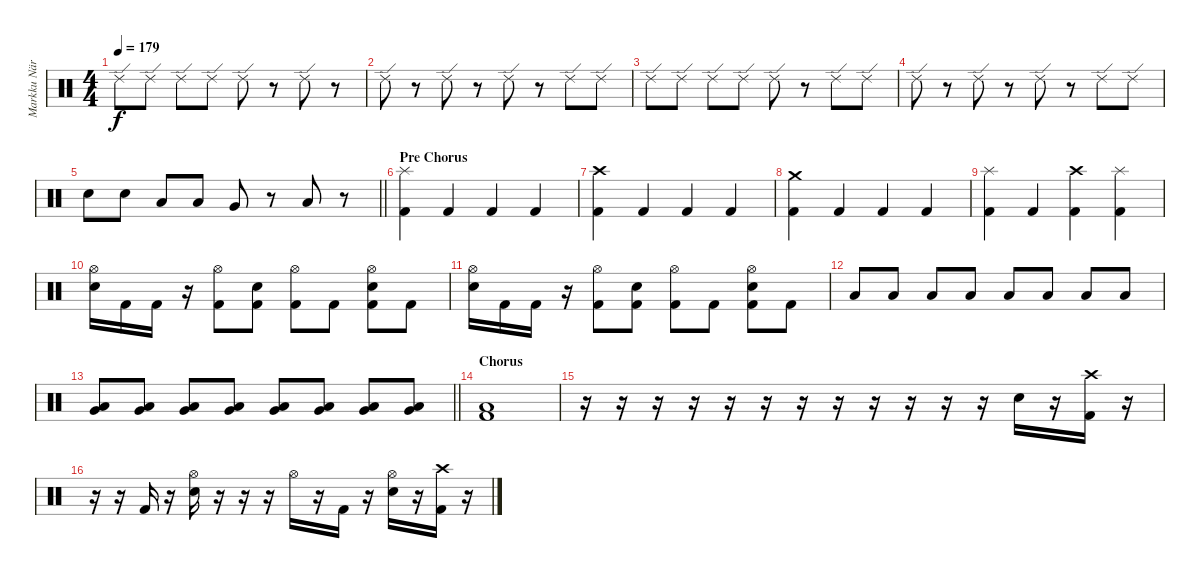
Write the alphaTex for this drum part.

\track ("Markku Näreneva (Drums)" "Markku När") {instrument percussion}
\staff {score}
\articulation defaults
\ts (4 4)
\tempo 179
\clef neutral
\ks c "Ride (edge) 2".8{dy f} "Ride (edge) 2".8 "Ride (edge) 2".8 "Ride (edge) 2".8 "Ride (edge) 2".8
r.8 "Ride (edge) 2".8 r.8 |
"Ride (edge) 2".8 r.8 "Ride (edge) 2".8 r.8 "Ride (edge) 2".8 r.8 "Ride (edge) 2".8 "Ride (edge) 2".8 |
"Ride (edge) 2".8 "Ride (edge) 2".8 "Ride (edge) 2".8 "Ride (edge) 2".8 "Ride (edge) 2".8 r.8 "Ride (edge) 2".8 "Ride (edge) 2".8 |
"Ride (edge) 2".8 r.8 "Ride (edge) 2".8 r.8 "Ride (edge) 2".8 r.8 "Ride (edge) 2".8 "Ride (edge) 2".8 |
\barLineRight lightlight "Snare (hit) 2".8 "Snare (hit) 2".8 "Low Tom (hit)".8 "Low Tom (hit)".8 "Very Low Tom (hit)".8
r.8 "Low Floor Tom (hit)".8 r.8 |
\section ("" "Pre Chorus")
("Kick (hit) 2" "Splash (hit)").4 "Kick (hit) 2".4 "Kick (hit) 2".4 "Kick (hit) 2".4 |
("Kick (hit) 2" "Crash high (hit)").4 "Kick (hit) 2".4 "Kick (hit) 2".4 "Kick (hit) 2".4 |
("Kick (hit) 2" "Crash medium (hit)").4 "Kick (hit) 2".4 "Kick (hit) 2".4 "Kick (hit) 2".4 |
("Kick (hit) 2" "Splash (hit)").4 "Kick (hit) 2".4 ("Kick (hit) 2" "Crash high (hit)").4 ("Kick (hit) 2" "Splash (hit)").4 |
("Snare (hit) 2" "Hi-Hat (open)").16 "Kick (hit) 2".16 "Kick (hit) 2".16 r.16 ("Kick (hit) 2" "Hi-Hat (open)").8 ("Kick (hit) 2" "Snare (hit) 2").8 ("Kick (hit) 2" "Hi-Hat (open)").8 "Kick (hit) 2".8 ("Kick (hit) 2" "Snare (hit) 2" "Hi-Hat (open)").8 "Kick (hit) 2".8 |
("Snare (hit) 2" "Hi-Hat (open)").16 "Kick (hit) 2".16 "Kick (hit) 2".16 r.16 ("Kick (hit) 2" "Hi-Hat (open)").8 ("Kick (hit) 2" "Snare (hit) 2").8 ("Kick (hit) 2" "Hi-Hat (open)").8 "Kick (hit) 2".8 ("Kick (hit) 2" "Snare (hit) 2" "Hi-Hat (open)").8 "Kick (hit) 2".8 |
"Low Tom (hit)".8 "Low Tom (hit)".8 "Low Tom (hit)".8 "Low Tom (hit)".8 "Low Tom (hit)".8 "Low Tom (hit)".8 "Low Tom (hit)".8 "Low Tom (hit)".8 |
\barLineRight lightlight
("Low Tom (hit)" "Very Low Tom (hit)").8 ("Low Tom (hit)" "Very Low Tom (hit)").8 ("Low Tom (hit)" "Very Low Tom (hit)").8 ("Low Tom (hit)" "Very Low Tom (hit)").8 ("Low Tom (hit)" "Very Low Tom (hit)").8 ("Low Tom (hit)" "Very Low Tom (hit)").8 ("Low Tom (hit)" "Very Low Tom (hit)").8 ("Low Tom (hit)" "Very Low Tom (hit)").8 |
\section ("" "Chorus")
("Kick (hit) 2" "Low Tom (hit)").1 |
r.16 r.16 r.16 r.16 r.16 r.16 r.16 r.16 r.16 r.16 r.16 r.16 "Snare (hit) 2".16 r.16 ("Kick (hit) 2" "Crash high (hit)").16 r.16 |
r.16 r.16 "Kick (hit) 2".16 r.16 ("Snare (hit) 2" "Hi-Hat (open)").16 r.16 r.16 r.16 "Hi-Hat (open)".16 r.16 "Kick (hit) 2".16 r.16 ("Snare (hit) 2" "Hi-Hat (open)").16 r.16 ("Kick (hit) 2" "Crash high (hit)").16 r.16
